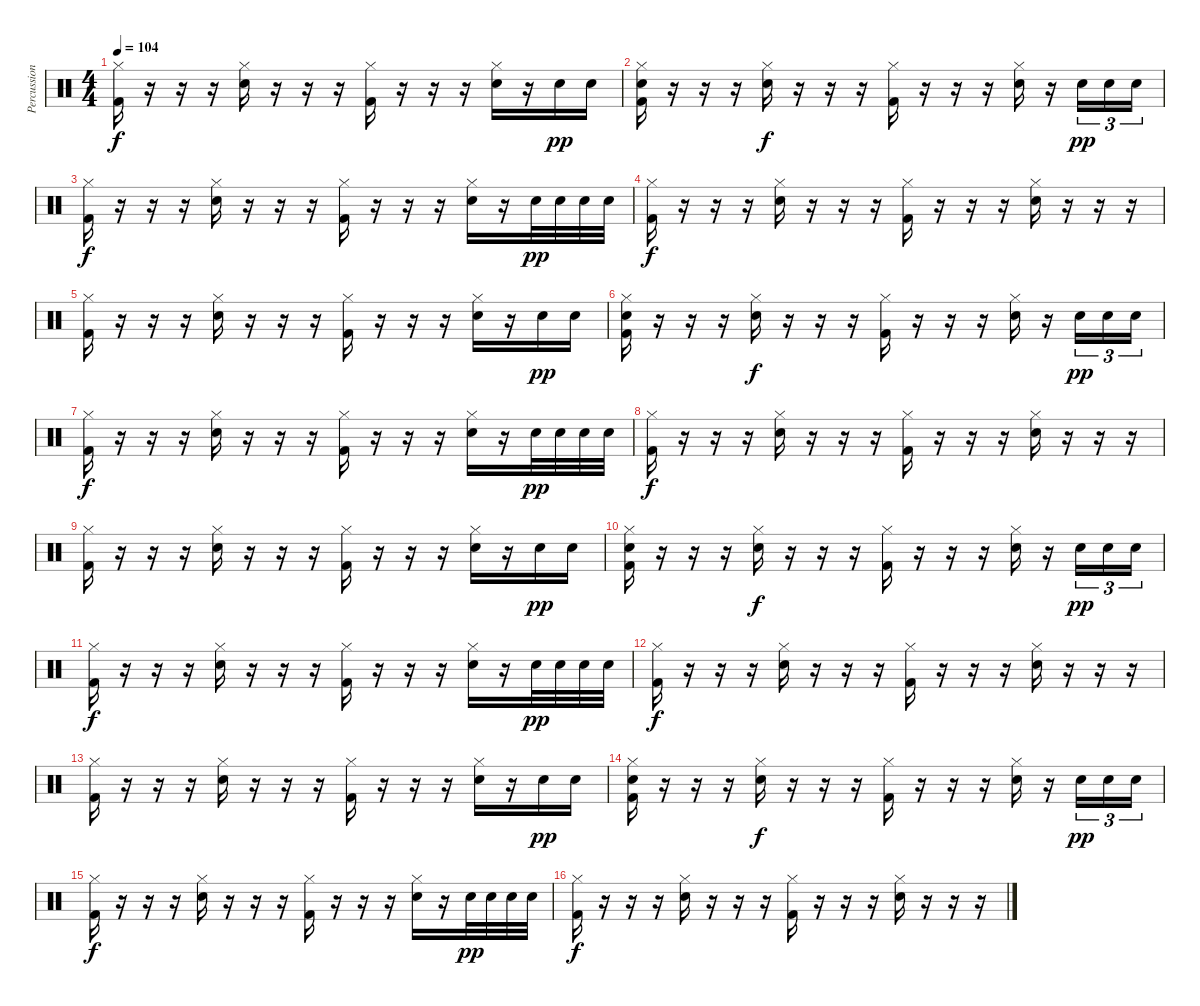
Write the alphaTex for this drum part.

\track ("Percussion" "Percussion") {instrument percussion}
\staff {score}
\articulation defaults
\ts (4 4)
\tempo 104
\clef neutral
\ks c
("Hi-Hat (closed)" "Kick (hit) 2").16{dy f} r.16 r.16 r.16 ("Hi-Hat (closed)" "Electric Snare (hit)").16 r.16 r.16 r.16 ("Hi-Hat (closed)" "Kick (hit) 2").16 r.16 r.16 r.16 ("Hi-Hat (closed)" "Electric Snare (hit)").16 r.16 "Electric Snare (hit)".16{dy pp} "Electric Snare (hit)".16 |
("Hi-Hat (closed)" "Electric Snare (hit)" "Kick (hit) 2").16 r.16 r.16 r.16 ("Hi-Hat (closed)" "Electric Snare (hit)").16{dy f} r.16 r.16 r.16 ("Hi-Hat (closed)" "Kick (hit) 2").16 r.16 r.16 r.16 ("Hi-Hat (closed)" "Electric Snare (hit)").16 r.16 "Electric Snare (hit)".16{tu (3 2) dy pp} "Electric Snare (hit)".16{tu (3 2)} "Electric Snare (hit)".16{tu (3 2)} |
("Hi-Hat (closed)" "Kick (hit) 2").16{dy f} r.16 r.16 r.16 ("Hi-Hat (closed)" "Electric Snare (hit)").16 r.16 r.16 r.16 ("Hi-Hat (closed)" "Kick (hit) 2").16 r.16 r.16 r.16 ("Hi-Hat (closed)" "Electric Snare (hit)").16 r.16 "Electric Snare (hit)".32{dy pp} "Electric Snare (hit)".32 "Electric Snare (hit)".32 "Electric Snare (hit)".32 |
("Hi-Hat (closed)" "Kick (hit) 2").16{dy f} r.16 r.16 r.16 ("Hi-Hat (closed)" "Electric Snare (hit)").16 r.16 r.16 r.16 ("Hi-Hat (closed)" "Kick (hit) 2").16 r.16 r.16 r.16 ("Hi-Hat (closed)" "Electric Snare (hit)").16 r.16 r.16 r.16 |
("Hi-Hat (closed)" "Kick (hit) 2").16 r.16 r.16 r.16 ("Hi-Hat (closed)" "Electric Snare (hit)").16 r.16 r.16 r.16 ("Hi-Hat (closed)" "Kick (hit) 2").16 r.16 r.16 r.16 ("Hi-Hat (closed)" "Electric Snare (hit)").16 r.16 "Electric Snare (hit)".16{dy pp} "Electric Snare (hit)".16 |
("Hi-Hat (closed)" "Electric Snare (hit)" "Kick (hit) 2").16 r.16 r.16 r.16 ("Hi-Hat (closed)" "Electric Snare (hit)").16{dy f} r.16 r.16 r.16 ("Hi-Hat (closed)" "Kick (hit) 2").16 r.16 r.16 r.16 ("Hi-Hat (closed)" "Electric Snare (hit)").16 r.16 "Electric Snare (hit)".16{tu (3 2) dy pp} "Electric Snare (hit)".16{tu (3 2)} "Electric Snare (hit)".16{tu (3 2)} |
("Hi-Hat (closed)" "Kick (hit) 2").16{dy f} r.16 r.16 r.16 ("Hi-Hat (closed)" "Electric Snare (hit)").16 r.16 r.16 r.16 ("Hi-Hat (closed)" "Kick (hit) 2").16 r.16 r.16 r.16 ("Hi-Hat (closed)" "Electric Snare (hit)").16 r.16 "Electric Snare (hit)".32{dy pp} "Electric Snare (hit)".32 "Electric Snare (hit)".32 "Electric Snare (hit)".32 |
("Hi-Hat (closed)" "Kick (hit) 2").16{dy f} r.16 r.16 r.16 ("Hi-Hat (closed)" "Electric Snare (hit)").16 r.16 r.16 r.16 ("Hi-Hat (closed)" "Kick (hit) 2").16 r.16 r.16 r.16 ("Hi-Hat (closed)" "Electric Snare (hit)").16 r.16 r.16 r.16 |
("Hi-Hat (closed)" "Kick (hit) 2").16 r.16 r.16 r.16 ("Hi-Hat (closed)" "Electric Snare (hit)").16 r.16 r.16 r.16 ("Hi-Hat (closed)" "Kick (hit) 2").16 r.16 r.16 r.16 ("Hi-Hat (closed)" "Electric Snare (hit)").16 r.16 "Electric Snare (hit)".16{dy pp} "Electric Snare (hit)".16 |
("Hi-Hat (closed)" "Electric Snare (hit)" "Kick (hit) 2").16 r.16 r.16 r.16 ("Hi-Hat (closed)" "Electric Snare (hit)").16{dy f} r.16 r.16 r.16 ("Hi-Hat (closed)" "Kick (hit) 2").16 r.16 r.16 r.16 ("Hi-Hat (closed)" "Electric Snare (hit)").16 r.16 "Electric Snare (hit)".16{tu (3 2) dy pp} "Electric Snare (hit)".16{tu (3 2)} "Electric Snare (hit)".16{tu (3 2)} |
("Hi-Hat (closed)" "Kick (hit) 2").16{dy f} r.16 r.16 r.16 ("Hi-Hat (closed)" "Electric Snare (hit)").16 r.16 r.16 r.16 ("Hi-Hat (closed)" "Kick (hit) 2").16 r.16 r.16 r.16 ("Hi-Hat (closed)" "Electric Snare (hit)").16 r.16 "Electric Snare (hit)".32{dy pp} "Electric Snare (hit)".32 "Electric Snare (hit)".32 "Electric Snare (hit)".32 |
("Hi-Hat (closed)" "Kick (hit) 2").16{dy f} r.16 r.16 r.16 ("Hi-Hat (closed)" "Electric Snare (hit)").16 r.16 r.16 r.16 ("Hi-Hat (closed)" "Kick (hit) 2").16 r.16 r.16 r.16 ("Hi-Hat (closed)" "Electric Snare (hit)").16 r.16 r.16 r.16 |
("Hi-Hat (closed)" "Kick (hit) 2").16 r.16 r.16 r.16 ("Hi-Hat (closed)" "Electric Snare (hit)").16 r.16 r.16 r.16 ("Hi-Hat (closed)" "Kick (hit) 2").16 r.16 r.16 r.16 ("Hi-Hat (closed)" "Electric Snare (hit)").16 r.16 "Electric Snare (hit)".16{dy pp} "Electric Snare (hit)".16 |
("Hi-Hat (closed)" "Electric Snare (hit)" "Kick (hit) 2").16 r.16 r.16 r.16 ("Hi-Hat (closed)" "Electric Snare (hit)").16{dy f} r.16 r.16 r.16 ("Hi-Hat (closed)" "Kick (hit) 2").16 r.16 r.16 r.16 ("Hi-Hat (closed)" "Electric Snare (hit)").16 r.16 "Electric Snare (hit)".16{tu (3 2) dy pp} "Electric Snare (hit)".16{tu (3 2)} "Electric Snare (hit)".16{tu (3 2)} |
("Hi-Hat (closed)" "Kick (hit) 2").16{dy f} r.16 r.16 r.16 ("Hi-Hat (closed)" "Electric Snare (hit)").16 r.16 r.16 r.16 ("Hi-Hat (closed)" "Kick (hit) 2").16 r.16 r.16 r.16 ("Hi-Hat (closed)" "Electric Snare (hit)").16 r.16 "Electric Snare (hit)".32{dy pp} "Electric Snare (hit)".32 "Electric Snare (hit)".32 "Electric Snare (hit)".32 |
("Hi-Hat (closed)" "Kick (hit) 2").16{dy f} r.16 r.16 r.16 ("Hi-Hat (closed)" "Electric Snare (hit)").16 r.16 r.16 r.16 ("Hi-Hat (closed)" "Kick (hit) 2").16 r.16 r.16 r.16 ("Hi-Hat (closed)" "Electric Snare (hit)").16 r.16 r.16 r.16
